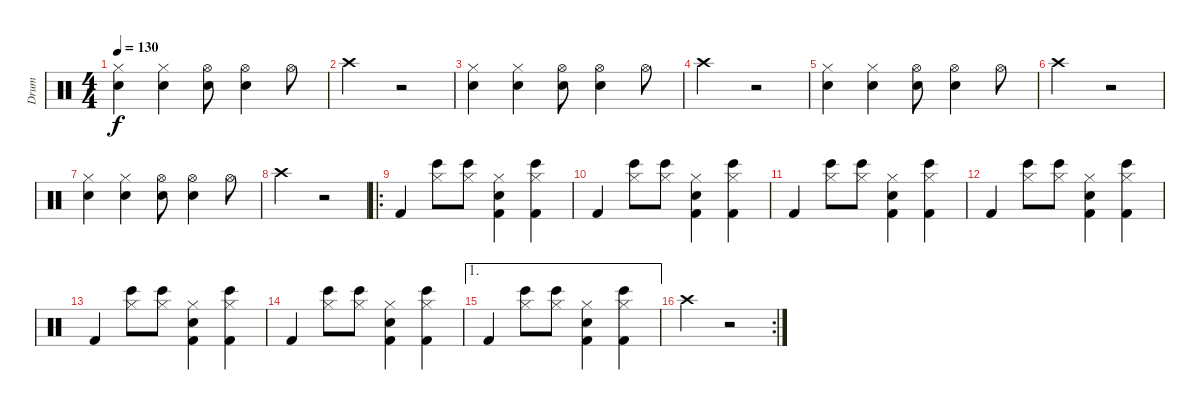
\track ("Drum" "Drum") {instrument percussion}
\staff {score}
\articulation defaults
\ts (4 4)
\tempo 130
\clef neutral
\ks c
("Hi-Hat (closed)" "Snare (hit) 2").4{dy f} ("Snare (hit) 2" "Hi-Hat (closed)").4 ("Snare (hit) 2" "Hi-Hat (open)").8 ("Snare (hit) 2" "Hi-Hat (open)").4 "Hi-Hat (open)".8 |
"Crash high (hit)".2 r.2 |
("Hi-Hat (closed)" "Snare (hit) 2").4 ("Snare (hit) 2" "Hi-Hat (closed)").4 ("Snare (hit) 2" "Hi-Hat (open)").8 ("Snare (hit) 2" "Hi-Hat (open)").4 "Hi-Hat (open)".8 |
"Crash high (hit)".2 r.2 |
("Hi-Hat (closed)" "Snare (hit) 2").4 ("Snare (hit) 2" "Hi-Hat (closed)").4 ("Snare (hit) 2" "Hi-Hat (open)").8 ("Snare (hit) 2" "Hi-Hat (open)").4 "Hi-Hat (open)".8 |
"Crash high (hit)".2 r.2 |
("Hi-Hat (closed)" "Snare (hit) 2").4 ("Snare (hit) 2" "Hi-Hat (closed)").4 ("Snare (hit) 2" "Hi-Hat (open)").8 ("Snare (hit) 2" "Hi-Hat (open)").4 "Hi-Hat (open)".8 |
"Crash high (hit)".2 r.2 |
\ro "Kick (hit) 2".4
("Hi-Hat (closed)" "Bongo High (hit)").8 ("Hi-Hat (closed)" "Bongo High (hit)").8 ("Hi-Hat (closed)" "Snare (hit) 2" "Kick (hit) 2").4 ("Hi-Hat (closed)" "Kick (hit) 2" "Bongo High (hit)").4 |
"Kick (hit) 2".4 ("Hi-Hat (closed)" "Bongo High (hit)").8 ("Hi-Hat (closed)" "Bongo High (hit)").8 ("Hi-Hat (closed)" "Snare (hit) 2" "Kick (hit) 2").4 ("Hi-Hat (closed)" "Kick (hit) 2" "Bongo High (hit)").4 |
"Kick (hit) 2".4 ("Hi-Hat (closed)" "Bongo High (hit)").8 ("Hi-Hat (closed)" "Bongo High (hit)").8 ("Hi-Hat (closed)" "Snare (hit) 2" "Kick (hit) 2").4 ("Hi-Hat (closed)" "Kick (hit) 2" "Bongo High (hit)").4 |
"Kick (hit) 2".4 ("Hi-Hat (closed)" "Bongo High (hit)").8 ("Hi-Hat (closed)" "Bongo High (hit)").8 ("Hi-Hat (closed)" "Snare (hit) 2" "Kick (hit) 2").4 ("Hi-Hat (closed)" "Kick (hit) 2" "Bongo High (hit)").4 |
"Kick (hit) 2".4 ("Hi-Hat (closed)" "Bongo High (hit)").8 ("Hi-Hat (closed)" "Bongo High (hit)").8 ("Hi-Hat (closed)" "Snare (hit) 2" "Kick (hit) 2").4 ("Hi-Hat (closed)" "Kick (hit) 2" "Bongo High (hit)").4 |
"Kick (hit) 2".4 ("Hi-Hat (closed)" "Bongo High (hit)").8 ("Hi-Hat (closed)" "Bongo High (hit)").8 ("Hi-Hat (closed)" "Snare (hit) 2" "Kick (hit) 2").4 ("Hi-Hat (closed)" "Kick (hit) 2" "Bongo High (hit)").4 |
\ae 1 "Kick (hit) 2".4
("Hi-Hat (closed)" "Bongo High (hit)").8 ("Hi-Hat (closed)" "Bongo High (hit)").8 ("Hi-Hat (closed)" "Snare (hit) 2" "Kick (hit) 2").4 ("Hi-Hat (closed)" "Kick (hit) 2" "Bongo High (hit)").4 |
\rc 2 "Crash high (hit)".2
r.2
